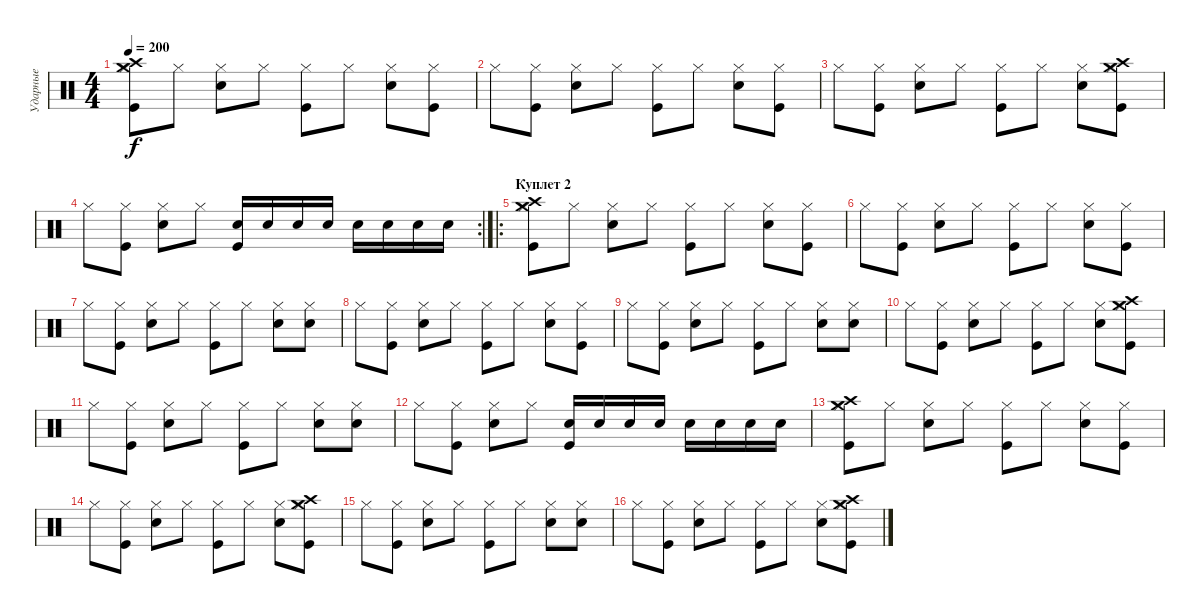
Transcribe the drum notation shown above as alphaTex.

\track ("Ударные" "Ударные") {instrument percussion}
\staff {score}
\articulation defaults
\ts (4 4)
\tempo 200
\clef neutral
\ks c
("Crash high (hit)" "Crash medium (hit)" "Hi-Hat (closed)" "Kick (hit)").8{dy f} "Hi-Hat (closed)".8 ("Electric Snare (hit)" "Hi-Hat (closed)").8 "Hi-Hat (closed)".8 ("Hi-Hat (closed)" "Kick (hit)").8 "Hi-Hat (closed)".8 ("Hi-Hat (closed)" "Electric Snare (hit)").8 ("Kick (hit)" "Hi-Hat (closed)").8 |
"Hi-Hat (closed)".8 ("Kick (hit)" "Hi-Hat (closed)").8 ("Electric Snare (hit)" "Hi-Hat (closed)").8 "Hi-Hat (closed)".8 ("Hi-Hat (closed)" "Kick (hit)").8 "Hi-Hat (closed)".8 ("Hi-Hat (closed)" "Electric Snare (hit)").8 ("Kick (hit)" "Hi-Hat (closed)").8 |
"Hi-Hat (closed)".8 ("Kick (hit)" "Hi-Hat (closed)").8 ("Electric Snare (hit)" "Hi-Hat (closed)").8 "Hi-Hat (closed)".8 ("Hi-Hat (closed)" "Kick (hit)").8 "Hi-Hat (closed)".8 ("Hi-Hat (closed)" "Electric Snare (hit)").8 ("Crash medium (hit)" "Hi-Hat (closed)" "Kick (hit)" "Crash high (hit)").8 |
\rc 2 "Hi-Hat (closed)".8
("Kick (hit)" "Hi-Hat (closed)").8 ("Electric Snare (hit)" "Hi-Hat (closed)").8 "Hi-Hat (closed)".8 ("Electric Snare (hit)" "Kick (hit)").16 "Electric Snare (hit)".16 "Electric Snare (hit)".16 "Electric Snare (hit)".16 "Electric Snare (hit)".16 "Electric Snare (hit)".16 "Electric Snare (hit)".16 "Electric Snare (hit)".16 |
\ro
\section ("" "Куплет 2")
("Hi-Hat (closed)" "Kick (hit)" "Crash high (hit)" "Crash medium (hit)").8 "Hi-Hat (closed)".8 ("Electric Snare (hit)" "Hi-Hat (closed)").8 "Hi-Hat (closed)".8 ("Hi-Hat (closed)" "Kick (hit)").8 "Hi-Hat (closed)".8 ("Hi-Hat (closed)" "Electric Snare (hit)").8 ("Hi-Hat (closed)" "Kick (hit)").8 |
"Hi-Hat (closed)".8 ("Hi-Hat (closed)" "Kick (hit)").8 ("Hi-Hat (closed)" "Electric Snare (hit)").8 "Hi-Hat (closed)".8 ("Kick (hit)" "Hi-Hat (closed)").8 "Hi-Hat (closed)".8 ("Electric Snare (hit)" "Hi-Hat (closed)").8 ("Kick (hit)" "Hi-Hat (closed)").8 |
"Hi-Hat (closed)".8 ("Kick (hit)" "Hi-Hat (closed)").8 ("Electric Snare (hit)" "Hi-Hat (closed)").8 "Hi-Hat (closed)".8 ("Hi-Hat (closed)" "Kick (hit)").8 "Hi-Hat (closed)".8 ("Hi-Hat (closed)" "Electric Snare (hit)").8 ("Electric Snare (hit)" "Hi-Hat (closed)").8 |
"Hi-Hat (closed)".8 ("Hi-Hat (closed)" "Kick (hit)").8 ("Hi-Hat (closed)" "Electric Snare (hit)").8 "Hi-Hat (closed)".8 ("Kick (hit)" "Hi-Hat (closed)").8 "Hi-Hat (closed)".8 ("Electric Snare (hit)" "Hi-Hat (closed)").8 ("Kick (hit)" "Hi-Hat (closed)").8 |
"Hi-Hat (closed)".8 ("Kick (hit)" "Hi-Hat (closed)").8 ("Electric Snare (hit)" "Hi-Hat (closed)").8 "Hi-Hat (closed)".8 ("Hi-Hat (closed)" "Kick (hit)").8 "Hi-Hat (closed)".8 ("Hi-Hat (closed)" "Electric Snare (hit)").8 ("Electric Snare (hit)" "Hi-Hat (closed)").8 |
"Hi-Hat (closed)".8 ("Kick (hit)" "Hi-Hat (closed)").8 ("Electric Snare (hit)" "Hi-Hat (closed)").8 "Hi-Hat (closed)".8 ("Hi-Hat (closed)" "Kick (hit)").8 "Hi-Hat (closed)".8 ("Hi-Hat (closed)" "Electric Snare (hit)").8 ("Crash medium (hit)" "Hi-Hat (closed)" "Kick (hit)" "Crash high (hit)").8 |
"Hi-Hat (closed)".8 ("Kick (hit)" "Hi-Hat (closed)").8 ("Electric Snare (hit)" "Hi-Hat (closed)").8 "Hi-Hat (closed)".8 ("Hi-Hat (closed)" "Kick (hit)").8 "Hi-Hat (closed)".8 ("Hi-Hat (closed)" "Electric Snare (hit)").8 ("Electric Snare (hit)" "Hi-Hat (closed)").8 |
"Hi-Hat (closed)".8 ("Kick (hit)" "Hi-Hat (closed)").8 ("Electric Snare (hit)" "Hi-Hat (closed)").8 "Hi-Hat (closed)".8 ("Electric Snare (hit)" "Kick (hit)").16 "Electric Snare (hit)".16 "Electric Snare (hit)".16 "Electric Snare (hit)".16 "Electric Snare (hit)".16 "Electric Snare (hit)".16 "Electric Snare (hit)".16 "Electric Snare (hit)".16 |
("Hi-Hat (closed)" "Kick (hit)" "Crash high (hit)" "Crash medium (hit)").8 "Hi-Hat (closed)".8 ("Electric Snare (hit)" "Hi-Hat (closed)").8 "Hi-Hat (closed)".8 ("Hi-Hat (closed)" "Kick (hit)").8 "Hi-Hat (closed)".8 ("Hi-Hat (closed)" "Electric Snare (hit)").8 ("Hi-Hat (closed)" "Kick (hit)").8 |
"Hi-Hat (closed)".8 ("Hi-Hat (closed)" "Kick (hit)").8 ("Hi-Hat (closed)" "Electric Snare (hit)").8 "Hi-Hat (closed)".8 ("Kick (hit)" "Hi-Hat (closed)").8 "Hi-Hat (closed)".8 ("Electric Snare (hit)" "Hi-Hat (closed)").8 ("Crash medium (hit)" "Hi-Hat (closed)" "Kick (hit)" "Crash high (hit)").8 |
"Hi-Hat (closed)".8 ("Kick (hit)" "Hi-Hat (closed)").8 ("Electric Snare (hit)" "Hi-Hat (closed)").8 "Hi-Hat (closed)".8 ("Hi-Hat (closed)" "Kick (hit)").8 "Hi-Hat (closed)".8 ("Hi-Hat (closed)" "Electric Snare (hit)").8 ("Electric Snare (hit)" "Hi-Hat (closed)").8 |
"Hi-Hat (closed)".8 ("Hi-Hat (closed)" "Kick (hit)").8 ("Hi-Hat (closed)" "Electric Snare (hit)").8 "Hi-Hat (closed)".8 ("Kick (hit)" "Hi-Hat (closed)").8 "Hi-Hat (closed)".8 ("Electric Snare (hit)" "Hi-Hat (closed)").8 ("Crash medium (hit)" "Hi-Hat (closed)" "Kick (hit)" "Crash high (hit)").8
